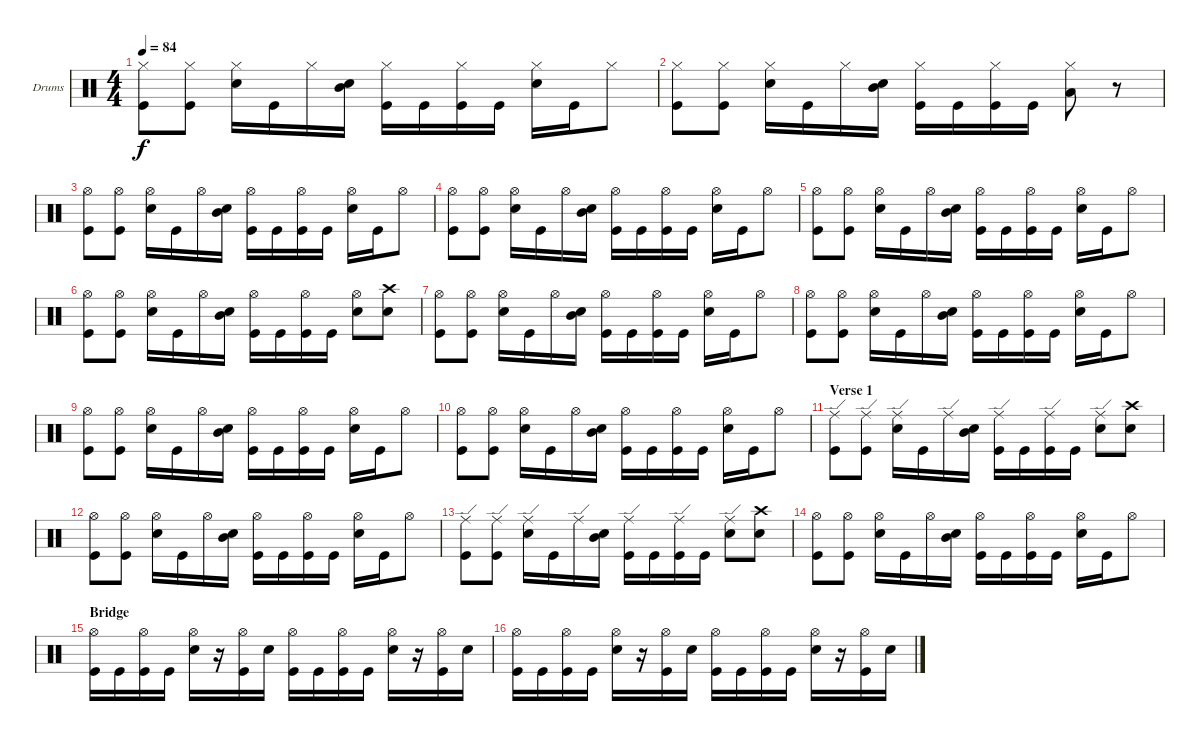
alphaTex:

\bracketExtendMode groupsimilarinstruments
\firstSystemTrackNameOrientation horizontal
\otherSystemsTrackNameOrientation horizontal
\track ("Dave Grohl" "Drums") {instrument percussion}
\staff {score}
\articulation defaults
\ts (4 4)
\tempo 84
\clef neutral
\ks c
("Hi-Hat (closed)" "Kick (hit)").8{dy f} ("Hi-Hat (closed)" "Kick (hit)").8 ("Hi-Hat (closed)" "Snare (hit) 2").16 "Kick (hit)".16 "Hi-Hat (closed)".16 ("Snare (hit) 2" "Mid Tom (hit)").16 ("Hi-Hat (closed)" "Kick (hit)").16 "Kick (hit)".16 ("Hi-Hat (closed)" "Kick (hit)").16 "Kick (hit)".16 ("Hi-Hat (closed)" "Snare (hit) 2").16 "Kick (hit)".16 "Hi-Hat (closed)".8 |
("Hi-Hat (closed)" "Kick (hit)").8 ("Hi-Hat (closed)" "Kick (hit)").8 ("Hi-Hat (closed)" "Snare (hit) 2").16 "Kick (hit)".16 "Hi-Hat (closed)".16 ("Snare (hit) 2" "Mid Tom (hit)").16 ("Hi-Hat (closed)" "Kick (hit)").16 "Kick (hit)".16 ("Hi-Hat (closed)" "Kick (hit)").16 "Kick (hit)".16 ("Hi-Hat (closed)" "Low Tom (hit)").8 r.8 |
("Hi-Hat (open)" "Kick (hit)").8 ("Hi-Hat (open)" "Kick (hit)").8 ("Hi-Hat (open)" "Snare (hit) 2").16 "Kick (hit)".16 "Hi-Hat (open)".16 ("Snare (hit) 2" "Mid Tom (hit)").16 ("Hi-Hat (open)" "Kick (hit)").16 "Kick (hit)".16 ("Hi-Hat (open)" "Kick (hit)").16 "Kick (hit)".16 ("Hi-Hat (open)" "Snare (hit) 2").16 "Kick (hit)".16 "Hi-Hat (open)".8 |
("Hi-Hat (open)" "Kick (hit)").8 ("Hi-Hat (open)" "Kick (hit)").8 ("Hi-Hat (open)" "Snare (hit) 2").16 "Kick (hit)".16 "Hi-Hat (open)".16 ("Snare (hit) 2" "Mid Tom (hit)").16 ("Hi-Hat (open)" "Kick (hit)").16 "Kick (hit)".16 ("Hi-Hat (open)" "Kick (hit)").16 "Kick (hit)".16 ("Hi-Hat (open)" "Snare (hit) 2").16 "Kick (hit)".16 "Hi-Hat (open)".8 |
("Hi-Hat (open)" "Kick (hit)").8 ("Hi-Hat (open)" "Kick (hit)").8 ("Hi-Hat (open)" "Snare (hit) 2").16 "Kick (hit)".16 "Hi-Hat (open)".16 ("Snare (hit) 2" "Mid Tom (hit)").16 ("Hi-Hat (open)" "Kick (hit)").16 "Kick (hit)".16 ("Hi-Hat (open)" "Kick (hit)").16 "Kick (hit)".16 ("Hi-Hat (open)" "Snare (hit) 2").16 "Kick (hit)".16 "Hi-Hat (open)".8 |
("Hi-Hat (open)" "Kick (hit)").8 ("Hi-Hat (open)" "Kick (hit)").8 ("Hi-Hat (open)" "Snare (hit) 2").16 "Kick (hit)".16 "Hi-Hat (open)".16 ("Snare (hit) 2" "Mid Tom (hit)").16 ("Hi-Hat (open)" "Kick (hit)").16 "Kick (hit)".16 ("Hi-Hat (open)" "Kick (hit)").16 "Kick (hit)".16 ("Hi-Hat (open)" "Snare (hit) 2").8 ("Crash high (hit)" "Snare (hit) 2").8 |
("Hi-Hat (open)" "Kick (hit)").8 ("Hi-Hat (open)" "Kick (hit)").8 ("Hi-Hat (open)" "Snare (hit) 2").16 "Kick (hit)".16 "Hi-Hat (open)".16 ("Snare (hit) 2" "Mid Tom (hit)").16 ("Hi-Hat (open)" "Kick (hit)").16 "Kick (hit)".16 ("Hi-Hat (open)" "Kick (hit)").16 "Kick (hit)".16 ("Hi-Hat (open)" "Snare (hit) 2").16 "Kick (hit)".16 "Hi-Hat (open)".8 |
("Hi-Hat (open)" "Kick (hit)").8 ("Hi-Hat (open)" "Kick (hit)").8 ("Hi-Hat (open)" "Snare (hit) 2").16 "Kick (hit)".16 "Hi-Hat (open)".16 ("Snare (hit) 2" "Mid Tom (hit)").16 ("Hi-Hat (open)" "Kick (hit)").16 "Kick (hit)".16 ("Hi-Hat (open)" "Kick (hit)").16 "Kick (hit)".16 ("Hi-Hat (open)" "Snare (hit) 2").16 "Kick (hit)".16 "Hi-Hat (open)".8 |
("Hi-Hat (open)" "Kick (hit)").8 ("Hi-Hat (open)" "Kick (hit)").8 ("Hi-Hat (open)" "Snare (hit) 2").16 "Kick (hit)".16 "Hi-Hat (open)".16 ("Snare (hit) 2" "Mid Tom (hit)").16 ("Hi-Hat (open)" "Kick (hit)").16 "Kick (hit)".16 ("Hi-Hat (open)" "Kick (hit)").16 "Kick (hit)".16 ("Hi-Hat (open)" "Snare (hit) 2").16 "Kick (hit)".16 "Hi-Hat (open)".8 |
("Hi-Hat (open)" "Kick (hit)").8 ("Hi-Hat (open)" "Kick (hit)").8 ("Hi-Hat (open)" "Snare (hit) 2").16 "Kick (hit)".16 "Hi-Hat (open)".16 ("Snare (hit) 2" "Mid Tom (hit)").16 ("Hi-Hat (open)" "Kick (hit)").16 "Kick (hit)".16 ("Hi-Hat (open)" "Kick (hit)").16 "Kick (hit)".16 ("Hi-Hat (open)" "Snare (hit) 2").16 "Kick (hit)".16 "Hi-Hat (open)".8 |
\section ("" "Verse 1")
("Ride (edge)" "Kick (hit)").8 ("Ride (edge)" "Kick (hit)").8 ("Ride (edge)" "Snare (hit) 2").16 "Kick (hit)".16 "Ride (edge)".16 ("Snare (hit) 2" "Mid Tom (hit)").16 ("Ride (edge)" "Kick (hit)").16 "Kick (hit)".16 ("Ride (edge)" "Kick (hit)").16 "Kick (hit)".16 ("Ride (edge)" "Snare (hit) 2").8 ("Crash high (hit)" "Snare (hit) 2").8 |
("Hi-Hat (open)" "Kick (hit)").8 ("Hi-Hat (open)" "Kick (hit)").8 ("Hi-Hat (open)" "Snare (hit) 2").16 "Kick (hit)".16 "Hi-Hat (open)".16 ("Snare (hit) 2" "Mid Tom (hit)").16 ("Hi-Hat (open)" "Kick (hit)").16 "Kick (hit)".16 ("Hi-Hat (open)" "Kick (hit)").16 "Kick (hit)".16 ("Hi-Hat (open)" "Snare (hit) 2").16 "Kick (hit)".16 "Hi-Hat (open)".8 |
("Ride (edge)" "Kick (hit)").8 ("Ride (edge)" "Kick (hit)").8 ("Ride (edge)" "Snare (hit) 2").16 "Kick (hit)".16 "Ride (edge)".16 ("Snare (hit) 2" "Mid Tom (hit)").16 ("Ride (edge)" "Kick (hit)").16 "Kick (hit)".16 ("Ride (edge)" "Kick (hit)").16 "Kick (hit)".16 ("Ride (edge)" "Snare (hit) 2").8 ("Crash high (hit)" "Snare (hit) 2").8 |
("Hi-Hat (open)" "Kick (hit)").8 ("Hi-Hat (open)" "Kick (hit)").8 ("Hi-Hat (open)" "Snare (hit) 2").16 "Kick (hit)".16 "Hi-Hat (open)".16 ("Snare (hit) 2" "Mid Tom (hit)").16 ("Hi-Hat (open)" "Kick (hit)").16 "Kick (hit)".16 ("Hi-Hat (open)" "Kick (hit)").16 "Kick (hit)".16 ("Hi-Hat (open)" "Snare (hit) 2").16 "Kick (hit)".16 "Hi-Hat (open)".8 |
\section ("" "Bridge")
("Hi-Hat (open)" "Kick (hit)").16 "Kick (hit)".16 ("Hi-Hat (open)" "Kick (hit)").16 "Kick (hit)".16 ("Hi-Hat (open)" "Snare (hit) 2").16 r.16 ("Hi-Hat (open)" "Kick (hit)").16 "Snare (hit) 2".16 ("Hi-Hat (open)" "Kick (hit)").16 "Kick (hit)".16 ("Hi-Hat (open)" "Kick (hit)").16 "Kick (hit)".16 ("Hi-Hat (open)" "Snare (hit) 2").16 r.16 ("Hi-Hat (open)" "Kick (hit)").16 "Snare (hit) 2".16 |
("Hi-Hat (open)" "Kick (hit)").16 "Kick (hit)".16 ("Hi-Hat (open)" "Kick (hit)").16 "Kick (hit)".16 ("Hi-Hat (open)" "Snare (hit) 2").16 r.16 ("Hi-Hat (open)" "Kick (hit)").16 "Snare (hit) 2".16 ("Hi-Hat (open)" "Kick (hit)").16 "Kick (hit)".16 ("Hi-Hat (open)" "Kick (hit)").16 "Kick (hit)".16 ("Hi-Hat (open)" "Snare (hit) 2").16 r.16 ("Hi-Hat (open)" "Kick (hit)").16 "Snare (hit) 2".16
